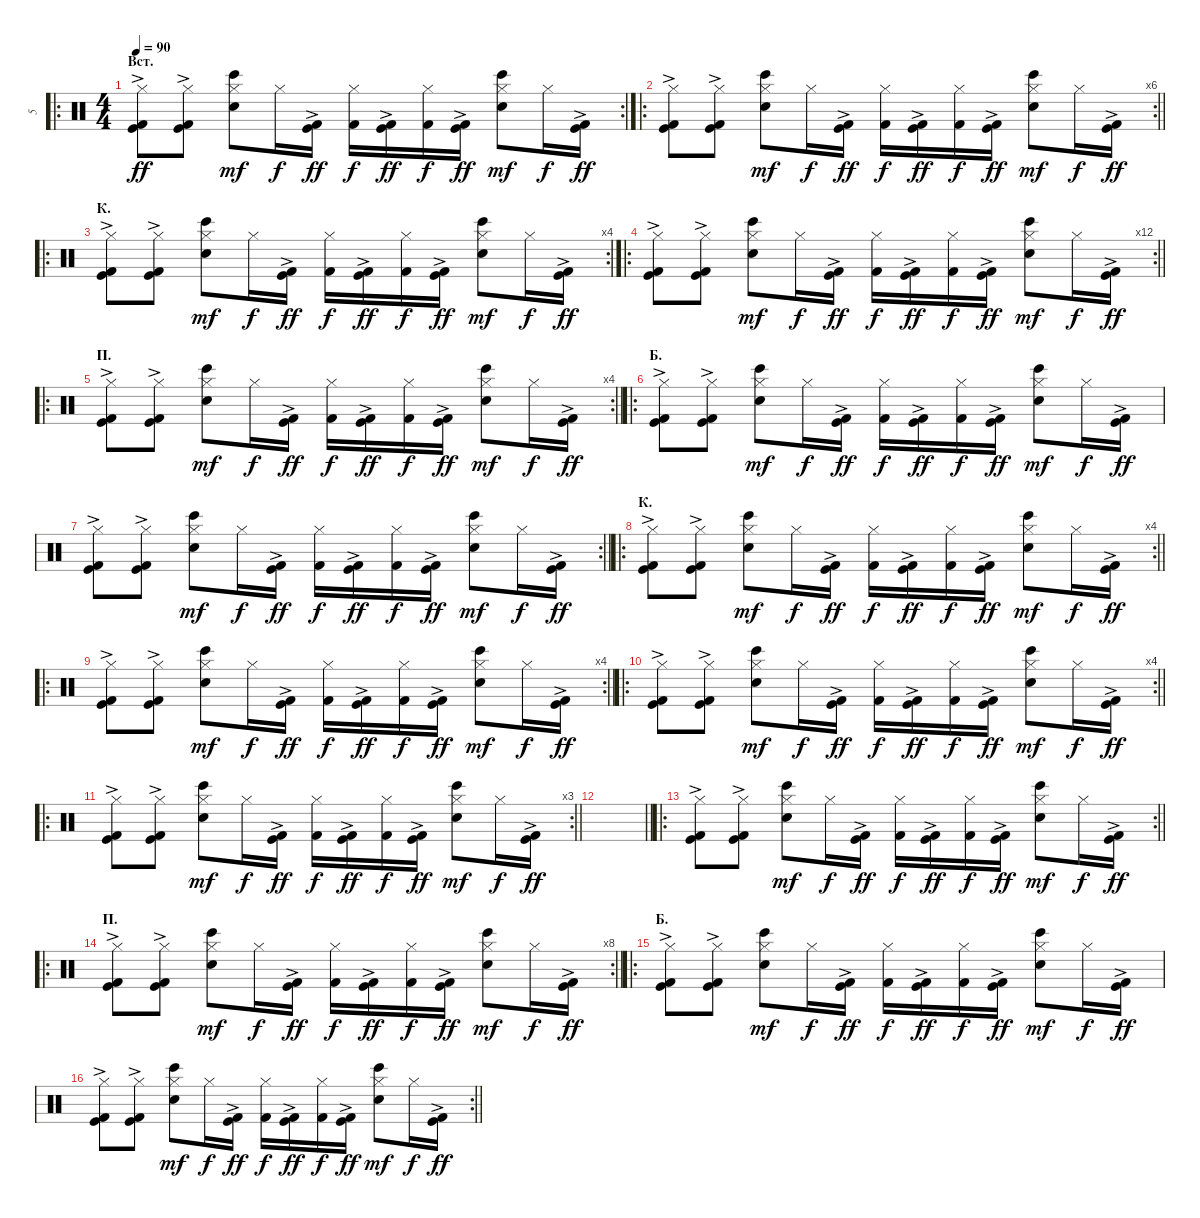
\track ("5" "5") {instrument percussion}
\staff {score}
\articulation defaults
\ro
\rc 2
\ts (4 4)
\section ("" "Вст.")
\tempo 90
\clef neutral
\ks c
("Kick (hit) 2"{ac} "Kick (hit)"{ac} "Hi-Hat (closed)").8{dy ff} ("Kick (hit) 2"{ac} "Kick (hit)"{ac} "Hi-Hat (closed)").8 ("Snare (hit) 2" "Hi-Hat (closed)" "Bongo High (hit)").8{dy mf} "Hi-Hat (closed)".16{dy f} ("Kick (hit) 2"{ac} "Kick (hit)"{ac}).16{dy ff} ("Kick (hit) 2" "Hi-Hat (closed)").16{dy f} ("Kick (hit) 2"{ac} "Kick (hit)"{ac}).16{dy ff} ("Kick (hit) 2" "Hi-Hat (closed)").16{dy f} ("Kick (hit) 2"{ac} "Kick (hit)"{ac}).16{dy ff} ("Snare (hit) 2" "Hi-Hat (closed)" "Bongo High (hit)").8{dy mf} "Hi-Hat (closed)".16{dy f} ("Kick (hit) 2"{ac} "Kick (hit)"{ac}).16{dy ff} |
\ro
\rc 6
\barLineRight lightlight
("Kick (hit) 2"{ac} "Kick (hit)"{ac} "Hi-Hat (closed)").8 ("Kick (hit) 2"{ac} "Kick (hit)"{ac} "Hi-Hat (closed)").8 ("Snare (hit) 2" "Hi-Hat (closed)" "Bongo High (hit)").8{dy mf} "Hi-Hat (closed)".16{dy f} ("Kick (hit) 2"{ac} "Kick (hit)"{ac}).16{dy ff} ("Kick (hit) 2" "Hi-Hat (closed)").16{dy f} ("Kick (hit) 2"{ac} "Kick (hit)"{ac}).16{dy ff} ("Kick (hit) 2" "Hi-Hat (closed)").16{dy f} ("Kick (hit) 2"{ac} "Kick (hit)"{ac}).16{dy ff} ("Snare (hit) 2" "Hi-Hat (closed)" "Bongo High (hit)").8{dy mf} "Hi-Hat (closed)".16{dy f} ("Kick (hit) 2"{ac} "Kick (hit)"{ac}).16{dy ff} |
\ro
\rc 4
\section ("" "К.")
("Kick (hit) 2"{ac} "Kick (hit)"{ac} "Hi-Hat (closed)").8 ("Kick (hit) 2"{ac} "Kick (hit)"{ac} "Hi-Hat (closed)").8 ("Snare (hit) 2" "Hi-Hat (closed)" "Bongo High (hit)").8{dy mf} "Hi-Hat (closed)".16{dy f} ("Kick (hit) 2"{ac} "Kick (hit)"{ac}).16{dy ff} ("Kick (hit) 2" "Hi-Hat (closed)").16{dy f} ("Kick (hit) 2"{ac} "Kick (hit)"{ac}).16{dy ff} ("Kick (hit) 2" "Hi-Hat (closed)").16{dy f} ("Kick (hit) 2"{ac} "Kick (hit)"{ac}).16{dy ff} ("Snare (hit) 2" "Hi-Hat (closed)" "Bongo High (hit)").8{dy mf} "Hi-Hat (closed)".16{dy f} ("Kick (hit) 2"{ac} "Kick (hit)"{ac}).16{dy ff} |
\ro
\rc 12
\barLineRight lightlight
("Kick (hit) 2"{ac} "Kick (hit)"{ac} "Hi-Hat (closed)").8 ("Kick (hit) 2"{ac} "Kick (hit)"{ac} "Hi-Hat (closed)").8 ("Snare (hit) 2" "Hi-Hat (closed)" "Bongo High (hit)").8{dy mf} "Hi-Hat (closed)".16{dy f} ("Kick (hit) 2"{ac} "Kick (hit)"{ac}).16{dy ff} ("Kick (hit) 2" "Hi-Hat (closed)").16{dy f} ("Kick (hit) 2"{ac} "Kick (hit)"{ac}).16{dy ff} ("Kick (hit) 2" "Hi-Hat (closed)").16{dy f} ("Kick (hit) 2"{ac} "Kick (hit)"{ac}).16{dy ff} ("Snare (hit) 2" "Hi-Hat (closed)" "Bongo High (hit)").8{dy mf} "Hi-Hat (closed)".16{dy f} ("Kick (hit) 2"{ac} "Kick (hit)"{ac}).16{dy ff} |
\ro
\rc 4
\section ("" "П.")
\barLineRight lightlight
("Kick (hit) 2"{ac} "Kick (hit)"{ac} "Hi-Hat (closed)").8 ("Kick (hit) 2"{ac} "Kick (hit)"{ac} "Hi-Hat (closed)").8 ("Snare (hit) 2" "Hi-Hat (closed)" "Bongo High (hit)").8{dy mf} "Hi-Hat (closed)".16{dy f} ("Kick (hit) 2"{ac} "Kick (hit)"{ac}).16{dy ff} ("Kick (hit) 2" "Hi-Hat (closed)").16{dy f} ("Kick (hit) 2"{ac} "Kick (hit)"{ac}).16{dy ff} ("Kick (hit) 2" "Hi-Hat (closed)").16{dy f} ("Kick (hit) 2"{ac} "Kick (hit)"{ac}).16{dy ff} ("Snare (hit) 2" "Hi-Hat (closed)" "Bongo High (hit)").8{dy mf} "Hi-Hat (closed)".16{dy f} ("Kick (hit) 2"{ac} "Kick (hit)"{ac}).16{dy ff} |
\ro
\section ("" "Б.")
("Kick (hit) 2"{ac} "Kick (hit)"{ac} "Hi-Hat (closed)").8 ("Kick (hit) 2"{ac} "Kick (hit)"{ac} "Hi-Hat (closed)").8 ("Snare (hit) 2" "Hi-Hat (closed)" "Bongo High (hit)").8{dy mf} "Hi-Hat (closed)".16{dy f} ("Kick (hit) 2"{ac} "Kick (hit)"{ac}).16{dy ff} ("Kick (hit) 2" "Hi-Hat (closed)").16{dy f} ("Kick (hit) 2"{ac} "Kick (hit)"{ac}).16{dy ff} ("Kick (hit) 2" "Hi-Hat (closed)").16{dy f} ("Kick (hit) 2"{ac} "Kick (hit)"{ac}).16{dy ff} ("Snare (hit) 2" "Hi-Hat (closed)" "Bongo High (hit)").8{dy mf} "Hi-Hat (closed)".16{dy f} ("Kick (hit) 2"{ac} "Kick (hit)"{ac}).16{dy ff} |
\rc 2
\barLineRight lightlight
("Kick (hit) 2"{ac} "Kick (hit)"{ac} "Hi-Hat (closed)").8 ("Kick (hit) 2"{ac} "Kick (hit)"{ac} "Hi-Hat (closed)").8 ("Snare (hit) 2" "Hi-Hat (closed)" "Bongo High (hit)").8{dy mf} "Hi-Hat (closed)".16{dy f} ("Kick (hit) 2"{ac} "Kick (hit)"{ac}).16{dy ff} ("Kick (hit) 2" "Hi-Hat (closed)").16{dy f} ("Kick (hit) 2"{ac} "Kick (hit)"{ac}).16{dy ff} ("Kick (hit) 2" "Hi-Hat (closed)").16{dy f} ("Kick (hit) 2"{ac} "Kick (hit)"{ac}).16{dy ff} ("Snare (hit) 2" "Hi-Hat (closed)" "Bongo High (hit)").8{dy mf} "Hi-Hat (closed)".16{dy f} ("Kick (hit) 2"{ac} "Kick (hit)"{ac}).16{dy ff} |
\ro
\rc 4
\section ("" "К.")
\barLineRight lightlight
("Kick (hit) 2"{ac} "Kick (hit)"{ac} "Hi-Hat (closed)").8 ("Kick (hit) 2"{ac} "Kick (hit)"{ac} "Hi-Hat (closed)").8 ("Snare (hit) 2" "Hi-Hat (closed)" "Bongo High (hit)").8{dy mf} "Hi-Hat (closed)".16{dy f} ("Kick (hit) 2"{ac} "Kick (hit)"{ac}).16{dy ff} ("Kick (hit) 2" "Hi-Hat (closed)").16{dy f} ("Kick (hit) 2"{ac} "Kick (hit)"{ac}).16{dy ff} ("Kick (hit) 2" "Hi-Hat (closed)").16{dy f} ("Kick (hit) 2"{ac} "Kick (hit)"{ac}).16{dy ff} ("Snare (hit) 2" "Hi-Hat (closed)" "Bongo High (hit)").8{dy mf} "Hi-Hat (closed)".16{dy f} ("Kick (hit) 2"{ac} "Kick (hit)"{ac}).16{dy ff} |
\ro
\rc 4
\barLineRight lightlight
("Kick (hit) 2"{ac} "Kick (hit)"{ac} "Hi-Hat (closed)").8 ("Kick (hit) 2"{ac} "Kick (hit)"{ac} "Hi-Hat (closed)").8 ("Snare (hit) 2" "Hi-Hat (closed)" "Bongo High (hit)").8{dy mf} "Hi-Hat (closed)".16{dy f} ("Kick (hit) 2"{ac} "Kick (hit)"{ac}).16{dy ff} ("Kick (hit) 2" "Hi-Hat (closed)").16{dy f} ("Kick (hit) 2"{ac} "Kick (hit)"{ac}).16{dy ff} ("Kick (hit) 2" "Hi-Hat (closed)").16{dy f} ("Kick (hit) 2"{ac} "Kick (hit)"{ac}).16{dy ff} ("Snare (hit) 2" "Hi-Hat (closed)" "Bongo High (hit)").8{dy mf} "Hi-Hat (closed)".16{dy f} ("Kick (hit) 2"{ac} "Kick (hit)"{ac}).16{dy ff} |
\ro
\rc 4
\barLineRight lightlight
("Kick (hit) 2"{ac} "Kick (hit)"{ac} "Hi-Hat (closed)").8 ("Kick (hit) 2"{ac} "Kick (hit)"{ac} "Hi-Hat (closed)").8 ("Snare (hit) 2" "Hi-Hat (closed)" "Bongo High (hit)").8{dy mf} "Hi-Hat (closed)".16{dy f} ("Kick (hit) 2"{ac} "Kick (hit)"{ac}).16{dy ff} ("Kick (hit) 2" "Hi-Hat (closed)").16{dy f} ("Kick (hit) 2"{ac} "Kick (hit)"{ac}).16{dy ff} ("Kick (hit) 2" "Hi-Hat (closed)").16{dy f} ("Kick (hit) 2"{ac} "Kick (hit)"{ac}).16{dy ff} ("Snare (hit) 2" "Hi-Hat (closed)" "Bongo High (hit)").8{dy mf} "Hi-Hat (closed)".16{dy f} ("Kick (hit) 2"{ac} "Kick (hit)"{ac}).16{dy ff} |
\ro
\rc 3
\barLineRight lightlight
("Kick (hit) 2"{ac} "Kick (hit)"{ac} "Hi-Hat (closed)").8 ("Kick (hit) 2"{ac} "Kick (hit)"{ac} "Hi-Hat (closed)").8 ("Snare (hit) 2" "Hi-Hat (closed)" "Bongo High (hit)").8{dy mf} "Hi-Hat (closed)".16{dy f} ("Kick (hit) 2"{ac} "Kick (hit)"{ac}).16{dy ff} ("Kick (hit) 2" "Hi-Hat (closed)").16{dy f} ("Kick (hit) 2"{ac} "Kick (hit)"{ac}).16{dy ff} ("Kick (hit) 2" "Hi-Hat (closed)").16{dy f} ("Kick (hit) 2"{ac} "Kick (hit)"{ac}).16{dy ff} ("Snare (hit) 2" "Hi-Hat (closed)" "Bongo High (hit)").8{dy mf} "Hi-Hat (closed)".16{dy f} ("Kick (hit) 2"{ac} "Kick (hit)"{ac}).16{dy ff} |
\barLineRight lightlight
|
\ro
\rc 2
\barLineRight lightlight
("Kick (hit) 2"{ac} "Kick (hit)"{ac} "Hi-Hat (closed)").8 ("Kick (hit) 2"{ac} "Kick (hit)"{ac} "Hi-Hat (closed)").8 ("Snare (hit) 2" "Hi-Hat (closed)" "Bongo High (hit)").8{dy mf} "Hi-Hat (closed)".16{dy f} ("Kick (hit) 2"{ac} "Kick (hit)"{ac}).16{dy ff} ("Kick (hit) 2" "Hi-Hat (closed)").16{dy f} ("Kick (hit) 2"{ac} "Kick (hit)"{ac}).16{dy ff} ("Kick (hit) 2" "Hi-Hat (closed)").16{dy f} ("Kick (hit) 2"{ac} "Kick (hit)"{ac}).16{dy ff} ("Snare (hit) 2" "Hi-Hat (closed)" "Bongo High (hit)").8{dy mf} "Hi-Hat (closed)".16{dy f} ("Kick (hit) 2"{ac} "Kick (hit)"{ac}).16{dy ff} |
\ro
\rc 8
\section ("" "П.")
\barLineRight lightlight
("Kick (hit) 2"{ac} "Kick (hit)"{ac} "Hi-Hat (closed)").8 ("Kick (hit) 2"{ac} "Kick (hit)"{ac} "Hi-Hat (closed)").8 ("Snare (hit) 2" "Hi-Hat (closed)" "Bongo High (hit)").8{dy mf} "Hi-Hat (closed)".16{dy f} ("Kick (hit) 2"{ac} "Kick (hit)"{ac}).16{dy ff} ("Kick (hit) 2" "Hi-Hat (closed)").16{dy f} ("Kick (hit) 2"{ac} "Kick (hit)"{ac}).16{dy ff} ("Kick (hit) 2" "Hi-Hat (closed)").16{dy f} ("Kick (hit) 2"{ac} "Kick (hit)"{ac}).16{dy ff} ("Snare (hit) 2" "Hi-Hat (closed)" "Bongo High (hit)").8{dy mf} "Hi-Hat (closed)".16{dy f} ("Kick (hit) 2"{ac} "Kick (hit)"{ac}).16{dy ff} |
\ro
\section ("" "Б.")
("Kick (hit) 2"{ac} "Kick (hit)"{ac} "Hi-Hat (closed)").8 ("Kick (hit) 2"{ac} "Kick (hit)"{ac} "Hi-Hat (closed)").8 ("Snare (hit) 2" "Hi-Hat (closed)" "Bongo High (hit)").8{dy mf} "Hi-Hat (closed)".16{dy f} ("Kick (hit) 2"{ac} "Kick (hit)"{ac}).16{dy ff} ("Kick (hit) 2" "Hi-Hat (closed)").16{dy f} ("Kick (hit) 2"{ac} "Kick (hit)"{ac}).16{dy ff} ("Kick (hit) 2" "Hi-Hat (closed)").16{dy f} ("Kick (hit) 2"{ac} "Kick (hit)"{ac}).16{dy ff} ("Snare (hit) 2" "Hi-Hat (closed)" "Bongo High (hit)").8{dy mf} "Hi-Hat (closed)".16{dy f} ("Kick (hit) 2"{ac} "Kick (hit)"{ac}).16{dy ff} |
\rc 2
\barLineRight lightlight
("Kick (hit) 2"{ac} "Kick (hit)"{ac} "Hi-Hat (closed)").8 ("Kick (hit) 2"{ac} "Kick (hit)"{ac} "Hi-Hat (closed)").8 ("Snare (hit) 2" "Hi-Hat (closed)" "Bongo High (hit)").8{dy mf} "Hi-Hat (closed)".16{dy f} ("Kick (hit) 2"{ac} "Kick (hit)"{ac}).16{dy ff} ("Kick (hit) 2" "Hi-Hat (closed)").16{dy f} ("Kick (hit) 2"{ac} "Kick (hit)"{ac}).16{dy ff} ("Kick (hit) 2" "Hi-Hat (closed)").16{dy f} ("Kick (hit) 2"{ac} "Kick (hit)"{ac}).16{dy ff} ("Snare (hit) 2" "Hi-Hat (closed)" "Bongo High (hit)").8{dy mf} "Hi-Hat (closed)".16{dy f} ("Kick (hit) 2"{ac} "Kick (hit)"{ac}).16{dy ff}
